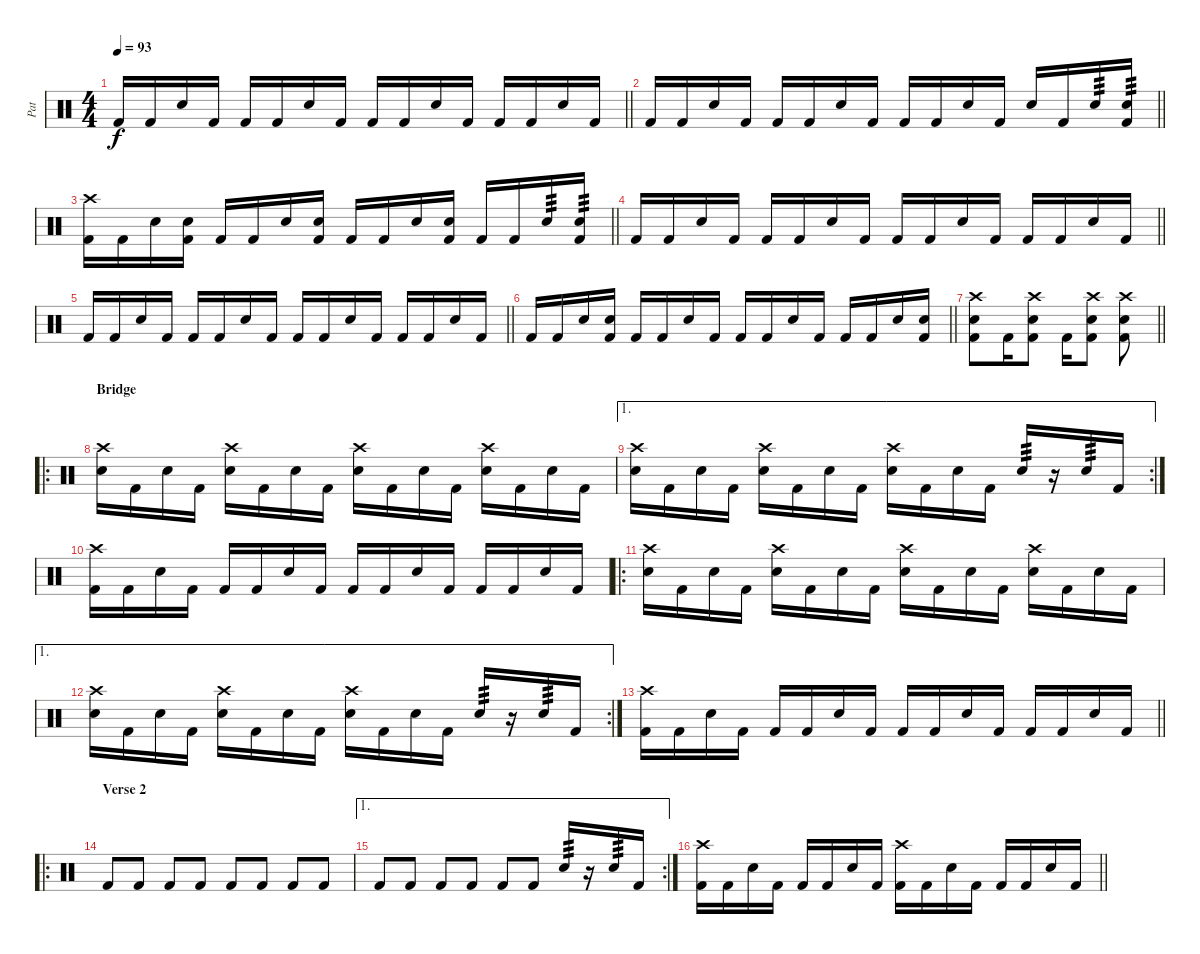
\track ("Pat" "Pat") {instrument percussion}
\staff {score}
\articulation defaults
\ts (4 4)
\tempo 93
\clef neutral
\barLineRight lightlight
\ks c "Kick (hit) 2".16{dy f} "Kick (hit) 2".16 "Electric Snare (hit)".16 "Kick (hit) 2".16 "Kick (hit) 2".16 "Kick (hit) 2".16 "Electric Snare (hit)".16 "Kick (hit) 2".16 "Kick (hit) 2".16 "Kick (hit) 2".16 "Electric Snare (hit)".16 "Kick (hit) 2".16 "Kick (hit) 2".16 "Kick (hit) 2".16 "Electric Snare (hit)".16 "Kick (hit) 2".16
|
\barLineRight lightlight "Kick (hit) 2".16 "Kick (hit) 2".16 "Electric Snare (hit)".16 "Kick (hit) 2".16 "Kick (hit) 2".16 "Kick (hit) 2".16 "Electric Snare (hit)".16 "Kick (hit) 2".16 "Kick (hit) 2".16 "Kick (hit) 2".16 "Electric Snare (hit)".16 "Kick (hit) 2".16 "Electric Snare (hit)".16 "Kick (hit) 2".16 "Electric Snare (hit)".16{tp 3}
("Electric Snare (hit)" "Kick (hit) 2").16{tp 3} |
\barLineRight lightlight
("Crash high (hit)" "Kick (hit) 2").16 "Kick (hit) 2".16 "Electric Snare (hit)".16 ("Electric Snare (hit)" "Kick (hit) 2").16 "Kick (hit) 2".16 "Kick (hit) 2".16 "Electric Snare (hit)".16 ("Electric Snare (hit)" "Kick (hit) 2").16 "Kick (hit) 2".16 "Kick (hit) 2".16 "Electric Snare (hit)".16 ("Electric Snare (hit)" "Kick (hit) 2").16 "Kick (hit) 2".16 "Kick (hit) 2".16 "Electric Snare (hit)".16{tp 3} ("Electric Snare (hit)" "Kick (hit) 2").16{tp 3} |
\barLineRight lightlight "Kick (hit) 2".16 "Kick (hit) 2".16 "Electric Snare (hit)".16 "Kick (hit) 2".16 "Kick (hit) 2".16 "Kick (hit) 2".16 "Electric Snare (hit)".16 "Kick (hit) 2".16 "Kick (hit) 2".16 "Kick (hit) 2".16 "Electric Snare (hit)".16 "Kick (hit) 2".16 "Kick (hit) 2".16 "Kick (hit) 2".16 "Electric Snare (hit)".16 "Kick (hit) 2".16
|
\barLineRight lightlight "Kick (hit) 2".16 "Kick (hit) 2".16 "Electric Snare (hit)".16 "Kick (hit) 2".16 "Kick (hit) 2".16 "Kick (hit) 2".16 "Electric Snare (hit)".16 "Kick (hit) 2".16 "Kick (hit) 2".16 "Kick (hit) 2".16 "Electric Snare (hit)".16 "Kick (hit) 2".16 "Kick (hit) 2".16 "Kick (hit) 2".16 "Electric Snare (hit)".16 "Kick (hit) 2".16
|
\barLineRight lightlight "Kick (hit) 2".16 "Kick (hit) 2".16 "Electric Snare (hit)".16
("Electric Snare (hit)" "Kick (hit) 2").16 "Kick (hit) 2".16 "Kick (hit) 2".16 "Electric Snare (hit)".16 "Kick (hit) 2".16 "Kick (hit) 2".16 "Kick (hit) 2".16 "Electric Snare (hit)".16 "Kick (hit) 2".16 "Kick (hit) 2".16 "Kick (hit) 2".16 "Electric Snare (hit)".16 ("Electric Snare (hit)" "Kick (hit) 2").16 |
\barLineRight lightlight
("Crash high (hit)" "Electric Snare (hit)" "Kick (hit) 2").8 "Kick (hit) 2".16 ("Crash high (hit)" "Electric Snare (hit)" "Kick (hit) 2").8 "Kick (hit) 2".16 ("Crash high (hit)" "Electric Snare (hit)" "Kick (hit) 2").8 ("Crash high (hit)" "Electric Snare (hit)" "Kick (hit) 2").8 |
\ro
\section ("" "Bridge")
("Crash high (hit)" "Electric Snare (hit)").16 "Kick (hit) 2".16 "Electric Snare (hit)".16 "Kick (hit) 2".16 ("Crash high (hit)" "Electric Snare (hit)").16 "Kick (hit) 2".16 "Electric Snare (hit)".16 "Kick (hit) 2".16 ("Crash high (hit)" "Electric Snare (hit)").16 "Kick (hit) 2".16 "Electric Snare (hit)".16 "Kick (hit) 2".16 ("Crash high (hit)" "Electric Snare (hit)").16 "Kick (hit) 2".16 "Electric Snare (hit)".16 "Kick (hit) 2".16 |
\ae 1
\rc 2
("Crash high (hit)" "Electric Snare (hit)").16 "Kick (hit) 2".16 "Electric Snare (hit)".16 "Kick (hit) 2".16 ("Crash high (hit)" "Electric Snare (hit)").16 "Kick (hit) 2".16 "Electric Snare (hit)".16 "Kick (hit) 2".16 ("Crash high (hit)" "Electric Snare (hit)").16 "Kick (hit) 2".16 "Electric Snare (hit)".16 "Kick (hit) 2".16 "Electric Snare (hit)".16{tp 3} r.16 "Electric Snare (hit)".16{tp 3} "Kick (hit) 2".16 |
("Crash high (hit)" "Kick (hit) 2").16 "Kick (hit) 2".16 "Electric Snare (hit)".16 "Kick (hit) 2".16 "Kick (hit) 2".16 "Kick (hit) 2".16 "Electric Snare (hit)".16 "Kick (hit) 2".16 "Kick (hit) 2".16 "Kick (hit) 2".16 "Electric Snare (hit)".16 "Kick (hit) 2".16 "Kick (hit) 2".16 "Kick (hit) 2".16 "Electric Snare (hit)".16 "Kick (hit) 2".16 |
\ro
("Crash high (hit)" "Electric Snare (hit)").16 "Kick (hit) 2".16 "Electric Snare (hit)".16 "Kick (hit) 2".16 ("Crash high (hit)" "Electric Snare (hit)").16 "Kick (hit) 2".16 "Electric Snare (hit)".16 "Kick (hit) 2".16 ("Crash high (hit)" "Electric Snare (hit)").16 "Kick (hit) 2".16 "Electric Snare (hit)".16 "Kick (hit) 2".16 ("Crash high (hit)" "Electric Snare (hit)").16 "Kick (hit) 2".16 "Electric Snare (hit)".16 "Kick (hit) 2".16 |
\ae 1
\rc 2
("Crash high (hit)" "Electric Snare (hit)").16 "Kick (hit) 2".16 "Electric Snare (hit)".16 "Kick (hit) 2".16 ("Crash high (hit)" "Electric Snare (hit)").16 "Kick (hit) 2".16 "Electric Snare (hit)".16 "Kick (hit) 2".16 ("Crash high (hit)" "Electric Snare (hit)").16 "Kick (hit) 2".16 "Electric Snare (hit)".16 "Kick (hit) 2".16 "Electric Snare (hit)".16{tp 3} r.16 "Electric Snare (hit)".16{tp 3} "Kick (hit) 2".16 |
\barLineRight lightlight
("Crash high (hit)" "Kick (hit) 2").16 "Kick (hit) 2".16 "Electric Snare (hit)".16 "Kick (hit) 2".16 "Kick (hit) 2".16 "Kick (hit) 2".16 "Electric Snare (hit)".16 "Kick (hit) 2".16 "Kick (hit) 2".16 "Kick (hit) 2".16 "Electric Snare (hit)".16 "Kick (hit) 2".16 "Kick (hit) 2".16 "Kick (hit) 2".16 "Electric Snare (hit)".16 "Kick (hit) 2".16 |
\ro
\section ("" "Verse 2")
"Kick (hit) 2".8 "Kick (hit) 2".8 "Kick (hit) 2".8 "Kick (hit) 2".8 "Kick (hit) 2".8 "Kick (hit) 2".8 "Kick (hit) 2".8 "Kick (hit) 2".8 |
\ae 1
\rc 2 "Kick (hit) 2".8 "Kick (hit) 2".8 "Kick (hit) 2".8 "Kick (hit) 2".8 "Kick (hit) 2".8 "Kick (hit) 2".8 "Electric Snare (hit)".16{tp 3}
r.16 "Electric Snare (hit)".16{tp 3} "Kick (hit) 2".16 |
\barLineRight lightlight
("Crash high (hit)" "Kick (hit) 2").16 "Kick (hit) 2".16 "Electric Snare (hit)".16 "Kick (hit) 2".16 "Kick (hit) 2".16 "Kick (hit) 2".16 "Electric Snare (hit)".16 "Kick (hit) 2".16 ("Crash high (hit)" "Kick (hit) 2").16 "Kick (hit) 2".16 "Electric Snare (hit)".16 "Kick (hit) 2".16 "Kick (hit) 2".16 "Kick (hit) 2".16 "Electric Snare (hit)".16 "Kick (hit) 2".16
